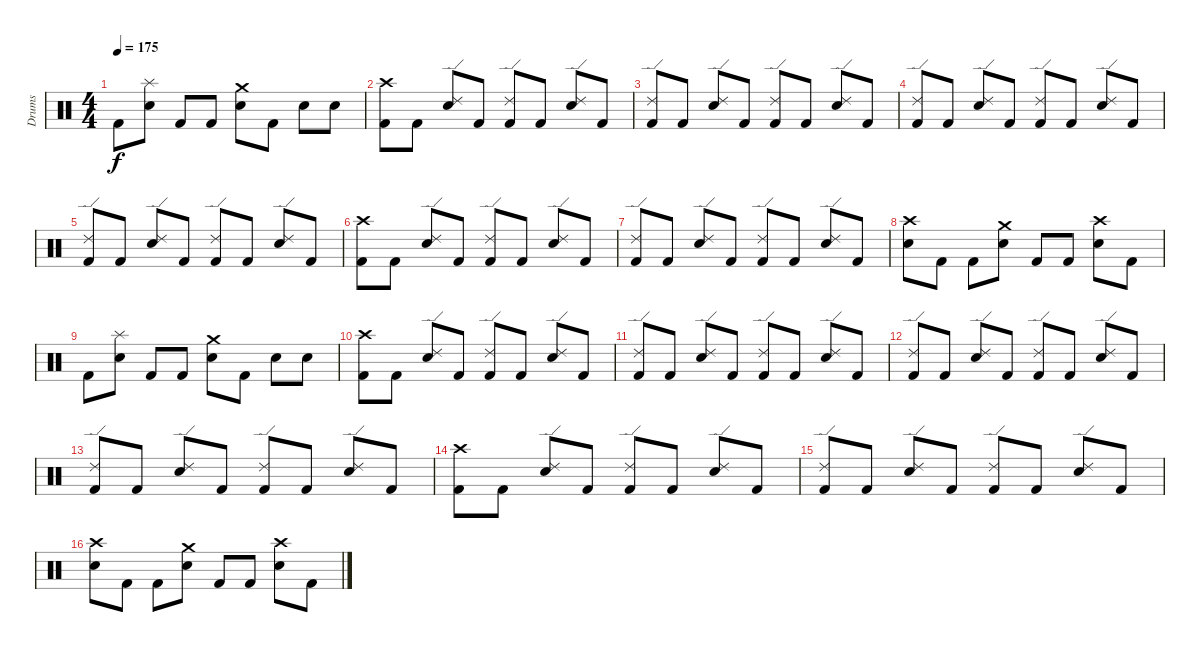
\track ("Drums" "Drums") {instrument percussion}
\staff {score}
\articulation defaults
\ts (4 4)
\tempo 175
\clef neutral
\ks c "Kick (hit) 2".8{dy f}
("Electric Snare (hit)" "Splash (hit)").8 "Kick (hit) 2".8 "Kick (hit) 2".8 ("Electric Snare (hit)" "Crash medium (hit)").8 "Kick (hit) 2".8 "Electric Snare (hit)".8 "Electric Snare (hit)".8 |
("Kick (hit) 2" "Crash high (hit)").8 "Kick (hit) 2".8 ("Electric Snare (hit)" "Ride (edge) 2").8 "Kick (hit) 2".8 ("Kick (hit) 2" "Ride (edge) 2").8 "Kick (hit) 2".8 ("Electric Snare (hit)" "Ride (edge) 2").8 "Kick (hit) 2".8 |
("Kick (hit) 2" "Ride (edge) 2").8 "Kick (hit) 2".8 ("Electric Snare (hit)" "Ride (edge) 2").8 "Kick (hit) 2".8 ("Kick (hit) 2" "Ride (edge) 2").8 "Kick (hit) 2".8 ("Electric Snare (hit)" "Ride (edge) 2").8 "Kick (hit) 2".8 |
("Kick (hit) 2" "Ride (edge) 2").8 "Kick (hit) 2".8 ("Electric Snare (hit)" "Ride (edge) 2").8 "Kick (hit) 2".8 ("Kick (hit) 2" "Ride (edge) 2").8 "Kick (hit) 2".8 ("Electric Snare (hit)" "Ride (edge) 2").8 "Kick (hit) 2".8 |
("Kick (hit) 2" "Ride (edge) 2").8 "Kick (hit) 2".8 ("Electric Snare (hit)" "Ride (edge) 2").8 "Kick (hit) 2".8 ("Kick (hit) 2" "Ride (edge) 2").8 "Kick (hit) 2".8 ("Electric Snare (hit)" "Ride (edge) 2").8 "Kick (hit) 2".8 |
("Kick (hit) 2" "Crash high (hit)").8 "Kick (hit) 2".8 ("Electric Snare (hit)" "Ride (edge) 2").8 "Kick (hit) 2".8 ("Kick (hit) 2" "Ride (edge) 2").8 "Kick (hit) 2".8 ("Electric Snare (hit)" "Ride (edge) 2").8 "Kick (hit) 2".8 |
("Kick (hit) 2" "Ride (edge) 2").8 "Kick (hit) 2".8 ("Electric Snare (hit)" "Ride (edge) 2").8 "Kick (hit) 2".8 ("Kick (hit) 2" "Ride (edge) 2").8 "Kick (hit) 2".8 ("Electric Snare (hit)" "Ride (edge) 2").8 "Kick (hit) 2".8 |
("Electric Snare (hit)" "Crash high (hit)").8 "Kick (hit) 2".8 "Kick (hit) 2".8 ("Electric Snare (hit)" "Crash medium (hit)").8 "Kick (hit) 2".8 "Kick (hit) 2".8 ("Electric Snare (hit)" "Crash high (hit)").8 "Kick (hit) 2".8 |
"Kick (hit) 2".8 ("Electric Snare (hit)" "Splash (hit)").8 "Kick (hit) 2".8 "Kick (hit) 2".8 ("Electric Snare (hit)" "Crash medium (hit)").8 "Kick (hit) 2".8 "Electric Snare (hit)".8 "Electric Snare (hit)".8 |
("Kick (hit) 2" "Crash high (hit)").8 "Kick (hit) 2".8 ("Electric Snare (hit)" "Ride (edge) 2").8 "Kick (hit) 2".8 ("Kick (hit) 2" "Ride (edge) 2").8 "Kick (hit) 2".8 ("Electric Snare (hit)" "Ride (edge) 2").8 "Kick (hit) 2".8 |
("Kick (hit) 2" "Ride (edge) 2").8 "Kick (hit) 2".8 ("Electric Snare (hit)" "Ride (edge) 2").8 "Kick (hit) 2".8 ("Kick (hit) 2" "Ride (edge) 2").8 "Kick (hit) 2".8 ("Electric Snare (hit)" "Ride (edge) 2").8 "Kick (hit) 2".8 |
("Kick (hit) 2" "Ride (edge) 2").8 "Kick (hit) 2".8 ("Electric Snare (hit)" "Ride (edge) 2").8 "Kick (hit) 2".8 ("Kick (hit) 2" "Ride (edge) 2").8 "Kick (hit) 2".8 ("Electric Snare (hit)" "Ride (edge) 2").8 "Kick (hit) 2".8 |
("Kick (hit) 2" "Ride (edge) 2").8 "Kick (hit) 2".8 ("Electric Snare (hit)" "Ride (edge) 2").8 "Kick (hit) 2".8 ("Kick (hit) 2" "Ride (edge) 2").8 "Kick (hit) 2".8 ("Electric Snare (hit)" "Ride (edge) 2").8 "Kick (hit) 2".8 |
("Kick (hit) 2" "Crash high (hit)").8 "Kick (hit) 2".8 ("Electric Snare (hit)" "Ride (edge) 2").8 "Kick (hit) 2".8 ("Kick (hit) 2" "Ride (edge) 2").8 "Kick (hit) 2".8 ("Electric Snare (hit)" "Ride (edge) 2").8 "Kick (hit) 2".8 |
("Kick (hit) 2" "Ride (edge) 2").8 "Kick (hit) 2".8 ("Electric Snare (hit)" "Ride (edge) 2").8 "Kick (hit) 2".8 ("Kick (hit) 2" "Ride (edge) 2").8 "Kick (hit) 2".8 ("Electric Snare (hit)" "Ride (edge) 2").8 "Kick (hit) 2".8 |
("Electric Snare (hit)" "Crash high (hit)").8 "Kick (hit) 2".8 "Kick (hit) 2".8 ("Electric Snare (hit)" "Crash medium (hit)").8 "Kick (hit) 2".8 "Kick (hit) 2".8 ("Electric Snare (hit)" "Crash high (hit)").8 "Kick (hit) 2".8
